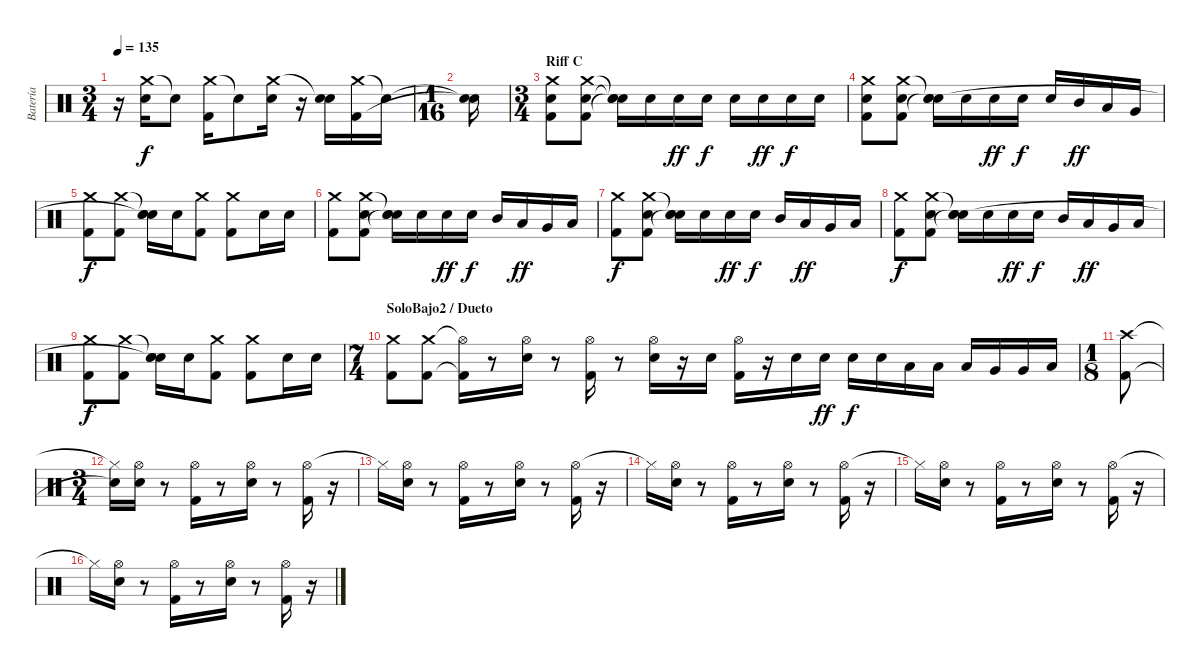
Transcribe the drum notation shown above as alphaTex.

\track ("Batería" "Batería") {instrument percussion}
\staff {score}
\articulation defaults
\ts (3 4)
\tempo 135
\clef neutral
\ks c
r.16{dy f} ("Crash medium (hit)" "Snare (hit) 2").16 "Snare (hit)"{t}.8 ("Crash medium (hit)" "Kick (hit) 2").16 "Snare (hit)"{t}.8 ("Crash medium (hit)" "Snare (hit) 2").16 r.16 ("Snare (hit)"{t} "Snare (hit) 2").16 ("Crash medium (hit)" "Kick (hit) 2").16 "Snare (hit)"{t}.16 |
\ts (1 16)
("Snare (hit)"{t} "Snare (hit)"{t}).16 |
\ts (3 4)
\section ("" "Riff C")
("Crash medium (hit)" "Snare (hit) 2" "Kick (hit) 2").8 ("Crash medium (hit)" "Snare (hit) 2" "Kick (hit) 2").8 ("Snare (hit)"{t} "Snare (hit) 2"{t} "Snare (hit)"{t}).16 "Snare (hit) 2".16 "Snare (hit) 2".16{dy ff} "Snare (hit) 2".16{dy f} "Snare (hit) 2".16 "Snare (hit) 2".16{dy ff} "Snare (hit) 2".16{dy f} "Snare (hit) 2".16 |
("Crash medium (hit)" "Snare (hit) 2" "Kick (hit) 2").8 ("Crash medium (hit)" "Snare (hit) 2" "Kick (hit) 2").8 ("Snare (hit)"{t} "Snare (hit) 2" "Snare (hit)"{t}).16 "Snare (hit) 2".16 "Snare (hit) 2".16{dy ff} "Snare (hit) 2".16{dy f} "Snare (hit) 2".16 "Mid Tom (hit)".16{dy ff} "Low Tom (hit)".16 "Very Low Tom (hit)".16 |
("Crash medium (hit)" "Kick (hit) 2").8{dy f} ("Crash medium (hit)" "Kick (hit) 2").8 ("Snare (hit)"{t} "Snare (hit) 2" "Snare (hit)"{t}).16 "Snare (hit) 2".16 ("Crash medium (hit)" "Kick (hit) 2").8 ("Crash medium (hit)" "Kick (hit) 2").8 "Snare (hit) 2".16 "Snare (hit) 2".16 |
("Crash medium (hit)" "Kick (hit) 2").8 ("Crash medium (hit)" "Snare (hit) 2" "Kick (hit) 2").8 ("Snare (hit)"{t} "Snare (hit) 2" "Snare (hit)"{t}).16 "Snare (hit) 2".16 "Snare (hit) 2".16{dy ff} "Snare (hit) 2".16{dy f} "Mid Tom (hit)".16 "Low Tom (hit)".16{dy ff} "Very Low Tom (hit)".16 "Low Floor Tom (hit)".16 |
("Crash medium (hit)" "Kick (hit) 2").8{dy f} ("Crash medium (hit)" "Snare (hit) 2" "Kick (hit) 2").8 ("Snare (hit)"{t} "Snare (hit) 2" "Snare (hit)"{t}).16 "Snare (hit) 2".16 "Snare (hit) 2".16{dy ff} "Snare (hit) 2".16{dy f} "Mid Tom (hit)".16 "Low Tom (hit)".16{dy ff} "Very Low Tom (hit)".16 "Low Floor Tom (hit)".16 |
("Crash medium (hit)" "Kick (hit) 2").8{dy f} ("Crash medium (hit)" "Snare (hit) 2" "Kick (hit) 2").8 ("Snare (hit)"{t} "Snare (hit) 2" "Snare (hit)"{t}).16 "Snare (hit) 2".16 "Snare (hit) 2".16{dy ff} "Snare (hit) 2".16{dy f} "Mid Tom (hit)".16 "Low Tom (hit)".16{dy ff} "Very Low Tom (hit)".16 "Low Floor Tom (hit)".16 |
("Crash medium (hit)" "Kick (hit) 2").8{dy f} ("Crash medium (hit)" "Kick (hit) 2").8 ("Snare (hit)"{t} "Snare (hit) 2" "Snare (hit)"{t}).16 "Snare (hit) 2".16 ("Crash medium (hit)" "Kick (hit) 2").8 ("Crash medium (hit)" "Kick (hit) 2").8 "Snare (hit) 2".16 "Snare (hit) 2".16 |
\ts (7 4)
\section ("" "SoloBajo2 / Dueto")
("Crash medium (hit)" "Kick (hit) 2").8 ("Crash medium (hit)" "Kick (hit) 2").8 ("Hi-Hat (open)"{t} "Kick (hit) 2"{t}).16 r.8 ("Hi-Hat (open)" "Snare (hit) 2").16 r.8 ("Hi-Hat (open)" "Kick (hit) 2").16 r.8 ("Hi-Hat (open)" "Snare (hit) 2").16 r.16 "Snare (hit) 2".16 ("Hi-Hat (open)" "Kick (hit) 2").16 r.16 "Snare (hit) 2".16 "Snare (hit) 2".16{dy ff} "Snare (hit) 2".16{dy f} "Snare (hit) 2".16 "Low Tom (hit)".16 "Low Tom (hit)".16 "Low Tom (hit)".16 "Very Low Tom (hit)".16 "Very Low Tom (hit)".16 "Low Floor Tom (hit)".16 |
\ts (1 8)
("Crash high (hit)" "Kick (hit) 2").8 |
\ts (3 4)
("Hi-Hat (closed)"{t} "Snare (hit)"{t}).16 ("Hi-Hat (open)" "Snare (hit) 2").16 r.8 ("Hi-Hat (open)" "Kick (hit) 2").16 r.8 ("Hi-Hat (open)" "Snare (hit) 2").16 r.8 ("Hi-Hat (open)" "Kick (hit) 2").16 r.16 |
"Hi-Hat (closed)"{t}.16 ("Hi-Hat (open)" "Snare (hit) 2").16 r.8 ("Hi-Hat (open)" "Kick (hit) 2").16 r.8 ("Hi-Hat (open)" "Snare (hit) 2").16 r.8 ("Hi-Hat (open)" "Kick (hit) 2").16 r.16 |
"Hi-Hat (closed)"{t}.16 ("Hi-Hat (open)" "Snare (hit) 2").16 r.8 ("Hi-Hat (open)" "Kick (hit) 2").16 r.8 ("Hi-Hat (open)" "Snare (hit) 2").16 r.8 ("Hi-Hat (open)" "Kick (hit) 2").16 r.16 |
"Hi-Hat (closed)"{t}.16 ("Hi-Hat (open)" "Snare (hit) 2").16 r.8 ("Hi-Hat (open)" "Kick (hit) 2").16 r.8 ("Hi-Hat (open)" "Snare (hit) 2").16 r.8 ("Hi-Hat (open)" "Kick (hit) 2").16 r.16 |
"Hi-Hat (closed)"{t}.16 ("Hi-Hat (open)" "Snare (hit) 2").16 r.8 ("Hi-Hat (open)" "Kick (hit) 2").16 r.8 ("Hi-Hat (open)" "Snare (hit) 2").16 r.8 ("Hi-Hat (open)" "Kick (hit) 2").16 r.16
